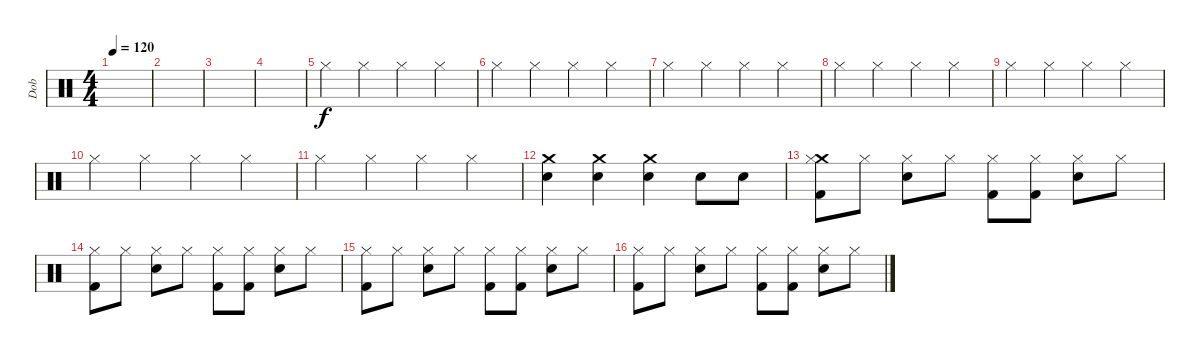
\track ("Dob" "Dob") {instrument percussion}
\staff {score}
\articulation defaults
\ts (4 4)
\tempo 120
\clef neutral
\ks c
|
|
|
|
"Hi-Hat (closed)".4 "Hi-Hat (closed)".4 "Hi-Hat (closed)".4 "Hi-Hat (closed)".4 |
"Hi-Hat (closed)".4 "Hi-Hat (closed)".4 "Hi-Hat (closed)".4 "Hi-Hat (closed)".4 |
"Hi-Hat (closed)".4 "Hi-Hat (closed)".4 "Hi-Hat (closed)".4 "Hi-Hat (closed)".4 |
"Hi-Hat (closed)".4 "Hi-Hat (closed)".4 "Hi-Hat (closed)".4 "Hi-Hat (closed)".4 |
"Hi-Hat (closed)".4 "Hi-Hat (closed)".4 "Hi-Hat (closed)".4 "Hi-Hat (closed)".4 |
"Hi-Hat (closed)".4 "Hi-Hat (closed)".4 "Hi-Hat (closed)".4 "Hi-Hat (closed)".4 |
"Hi-Hat (closed)".4 "Hi-Hat (closed)".4 "Hi-Hat (closed)".4 "Hi-Hat (closed)".4 |
("Snare (hit) 2" "Crash medium (hit)").4 ("Snare (hit) 2" "Crash medium (hit)").4 ("Snare (hit) 2" "Crash medium (hit)").4 "Snare (hit) 2".8 "Snare (hit) 2".8 |
("Crash medium (hit)" "Hi-Hat (closed)" "Kick (hit) 2").8 "Hi-Hat (closed)".8 ("Hi-Hat (closed)" "Snare (hit) 2").8 "Hi-Hat (closed)".8 ("Hi-Hat (closed)" "Kick (hit) 2").8 ("Hi-Hat (closed)" "Kick (hit) 2").8 ("Hi-Hat (closed)" "Snare (hit) 2").8 "Hi-Hat (closed)".8 |
("Hi-Hat (closed)" "Kick (hit) 2").8 "Hi-Hat (closed)".8 ("Hi-Hat (closed)" "Snare (hit) 2").8 "Hi-Hat (closed)".8 ("Hi-Hat (closed)" "Kick (hit) 2").8 ("Hi-Hat (closed)" "Kick (hit) 2").8 ("Hi-Hat (closed)" "Snare (hit) 2").8 "Hi-Hat (closed)".8 |
("Hi-Hat (closed)" "Kick (hit) 2").8 "Hi-Hat (closed)".8 ("Hi-Hat (closed)" "Snare (hit) 2").8 "Hi-Hat (closed)".8 ("Hi-Hat (closed)" "Kick (hit) 2").8 ("Hi-Hat (closed)" "Kick (hit) 2").8 ("Hi-Hat (closed)" "Snare (hit) 2").8 "Hi-Hat (closed)".8 |
("Hi-Hat (closed)" "Kick (hit) 2").8 "Hi-Hat (closed)".8 ("Hi-Hat (closed)" "Snare (hit) 2").8 "Hi-Hat (closed)".8 ("Hi-Hat (closed)" "Kick (hit) 2").8 ("Hi-Hat (closed)" "Kick (hit) 2").8 ("Hi-Hat (closed)" "Snare (hit) 2").8 "Hi-Hat (closed)".8
